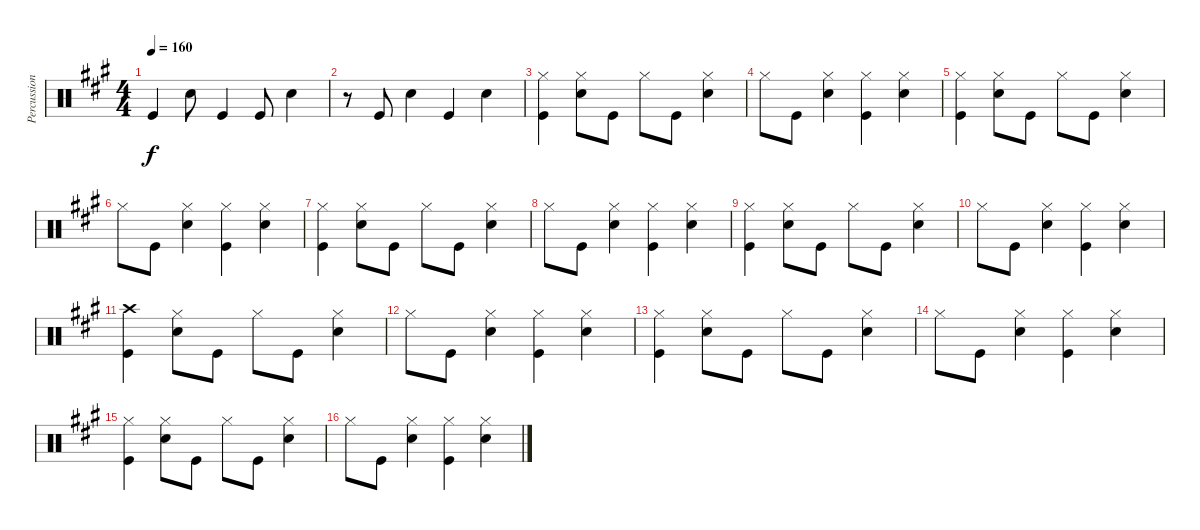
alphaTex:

\track ("Percussion" "Percussion") {instrument percussion}
\staff {score}
\articulation defaults
\ts (4 4)
\tempo 160
\clef neutral
\ks a "Kick (hit)".4{dy f} "Snare (hit) 2".8 "Kick (hit)".4 "Kick (hit)".8 "Snare (hit) 2".4
|
r.8 "Kick (hit)".8 "Snare (hit) 2".4 "Kick (hit)".4 "Snare (hit) 2".4 |
("Hi-Hat (closed)" "Kick (hit)").4 ("Snare (hit) 2" "Hi-Hat (closed)").8 "Kick (hit)".8 "Hi-Hat (closed)".8 "Kick (hit)".8 ("Snare (hit) 2" "Hi-Hat (closed)").4 |
"Hi-Hat (closed)".8 "Kick (hit)".8 ("Snare (hit) 2" "Hi-Hat (closed)").4 ("Kick (hit)" "Hi-Hat (closed)").4 ("Snare (hit) 2" "Hi-Hat (closed)").4 |
("Kick (hit)" "Hi-Hat (closed)").4 ("Snare (hit) 2" "Hi-Hat (closed)").8 "Kick (hit)".8 "Hi-Hat (closed)".8 "Kick (hit)".8 ("Snare (hit) 2" "Hi-Hat (closed)").4 |
"Hi-Hat (closed)".8 "Kick (hit)".8 ("Snare (hit) 2" "Hi-Hat (closed)").4 ("Kick (hit)" "Hi-Hat (closed)").4 ("Snare (hit) 2" "Hi-Hat (closed)").4 |
("Hi-Hat (closed)" "Kick (hit)").4 ("Snare (hit) 2" "Hi-Hat (closed)").8 "Kick (hit)".8 "Hi-Hat (closed)".8 "Kick (hit)".8 ("Snare (hit) 2" "Hi-Hat (closed)").4 |
"Hi-Hat (closed)".8 "Kick (hit)".8 ("Snare (hit) 2" "Hi-Hat (closed)").4 ("Kick (hit)" "Hi-Hat (closed)").4 ("Snare (hit) 2" "Hi-Hat (closed)").4 |
("Kick (hit)" "Hi-Hat (closed)").4 ("Snare (hit) 2" "Hi-Hat (closed)").8 "Kick (hit)".8 "Hi-Hat (closed)".8 "Kick (hit)".8 ("Snare (hit) 2" "Hi-Hat (closed)").4 |
"Hi-Hat (closed)".8 "Kick (hit)".8 ("Snare (hit) 2" "Hi-Hat (closed)").4 ("Kick (hit)" "Hi-Hat (closed)").4 ("Snare (hit) 2" "Hi-Hat (closed)").4 |
("Crash high (hit)" "Kick (hit)").4 ("Snare (hit) 2" "Hi-Hat (closed)").8 "Kick (hit)".8 "Hi-Hat (closed)".8 "Kick (hit)".8 ("Snare (hit) 2" "Hi-Hat (closed)").4 |
"Hi-Hat (closed)".8 "Kick (hit)".8 ("Snare (hit) 2" "Hi-Hat (closed)").4 ("Kick (hit)" "Hi-Hat (closed)").4 ("Snare (hit) 2" "Hi-Hat (closed)").4 |
("Kick (hit)" "Hi-Hat (closed)").4 ("Snare (hit) 2" "Hi-Hat (closed)").8 "Kick (hit)".8 "Hi-Hat (closed)".8 "Kick (hit)".8 ("Snare (hit) 2" "Hi-Hat (closed)").4 |
"Hi-Hat (closed)".8 "Kick (hit)".8 ("Snare (hit) 2" "Hi-Hat (closed)").4 ("Kick (hit)" "Hi-Hat (closed)").4 ("Snare (hit) 2" "Hi-Hat (closed)").4 |
("Hi-Hat (closed)" "Kick (hit)").4 ("Snare (hit) 2" "Hi-Hat (closed)").8 "Kick (hit)".8 "Hi-Hat (closed)".8 "Kick (hit)".8 ("Snare (hit) 2" "Hi-Hat (closed)").4 |
"Hi-Hat (closed)".8 "Kick (hit)".8 ("Snare (hit) 2" "Hi-Hat (closed)").4 ("Kick (hit)" "Hi-Hat (closed)").4 ("Snare (hit) 2" "Hi-Hat (closed)").4
